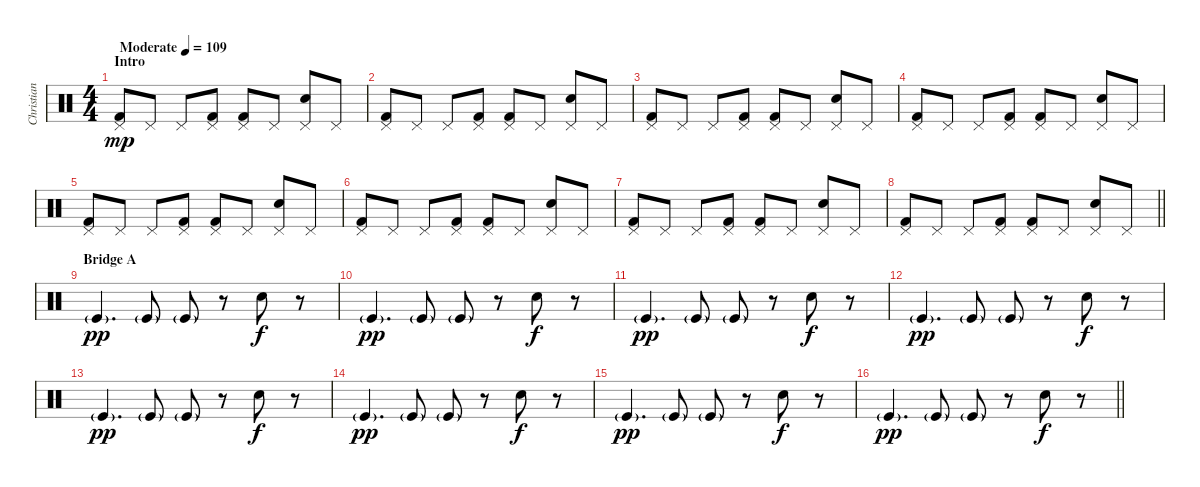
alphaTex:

\track ("Christian Eigner - Drums" "Christian ") {instrument percussion}
\staff {score}
\articulation defaults
\ts (4 4)
\section ("" "Intro")
\tempo (109 "Moderate")
\clef neutral
\ks c
("Pedal Hi-Hat (hit)" "Kick (hit) 2").8{dy mp} "Pedal Hi-Hat (hit)".8 "Pedal Hi-Hat (hit)".8 ("Pedal Hi-Hat (hit)" "Kick (hit) 2").8 ("Pedal Hi-Hat (hit)" "Kick (hit) 2").8 "Pedal Hi-Hat (hit)".8 ("Pedal Hi-Hat (hit)" "Hand Clap (hit)").8 "Pedal Hi-Hat (hit)".8 |
("Pedal Hi-Hat (hit)" "Kick (hit) 2").8 "Pedal Hi-Hat (hit)".8 "Pedal Hi-Hat (hit)".8 ("Pedal Hi-Hat (hit)" "Kick (hit) 2").8 ("Pedal Hi-Hat (hit)" "Kick (hit) 2").8 "Pedal Hi-Hat (hit)".8 ("Pedal Hi-Hat (hit)" "Hand Clap (hit)").8 "Pedal Hi-Hat (hit)".8 |
("Pedal Hi-Hat (hit)" "Kick (hit) 2").8 "Pedal Hi-Hat (hit)".8 "Pedal Hi-Hat (hit)".8 ("Pedal Hi-Hat (hit)" "Kick (hit) 2").8 ("Pedal Hi-Hat (hit)" "Kick (hit) 2").8 "Pedal Hi-Hat (hit)".8 ("Pedal Hi-Hat (hit)" "Hand Clap (hit)").8 "Pedal Hi-Hat (hit)".8 |
("Pedal Hi-Hat (hit)" "Kick (hit) 2").8 "Pedal Hi-Hat (hit)".8 "Pedal Hi-Hat (hit)".8 ("Pedal Hi-Hat (hit)" "Kick (hit) 2").8 ("Pedal Hi-Hat (hit)" "Kick (hit) 2").8 "Pedal Hi-Hat (hit)".8 ("Pedal Hi-Hat (hit)" "Hand Clap (hit)").8 "Pedal Hi-Hat (hit)".8 |
("Pedal Hi-Hat (hit)" "Kick (hit) 2").8 "Pedal Hi-Hat (hit)".8 "Pedal Hi-Hat (hit)".8 ("Pedal Hi-Hat (hit)" "Kick (hit) 2").8 ("Pedal Hi-Hat (hit)" "Kick (hit) 2").8 "Pedal Hi-Hat (hit)".8 ("Pedal Hi-Hat (hit)" "Hand Clap (hit)").8 "Pedal Hi-Hat (hit)".8 |
("Pedal Hi-Hat (hit)" "Kick (hit) 2").8 "Pedal Hi-Hat (hit)".8 "Pedal Hi-Hat (hit)".8 ("Pedal Hi-Hat (hit)" "Kick (hit) 2").8 ("Pedal Hi-Hat (hit)" "Kick (hit) 2").8 "Pedal Hi-Hat (hit)".8 ("Pedal Hi-Hat (hit)" "Hand Clap (hit)").8 "Pedal Hi-Hat (hit)".8 |
("Pedal Hi-Hat (hit)" "Kick (hit) 2").8 "Pedal Hi-Hat (hit)".8 "Pedal Hi-Hat (hit)".8 ("Pedal Hi-Hat (hit)" "Kick (hit) 2").8 ("Pedal Hi-Hat (hit)" "Kick (hit) 2").8 "Pedal Hi-Hat (hit)".8 ("Pedal Hi-Hat (hit)" "Hand Clap (hit)").8 "Pedal Hi-Hat (hit)".8 |
\barLineRight lightlight
("Pedal Hi-Hat (hit)" "Kick (hit) 2").8 "Pedal Hi-Hat (hit)".8 "Pedal Hi-Hat (hit)".8 ("Pedal Hi-Hat (hit)" "Kick (hit) 2").8 ("Pedal Hi-Hat (hit)" "Kick (hit) 2").8 "Pedal Hi-Hat (hit)".8 ("Pedal Hi-Hat (hit)" "Hand Clap (hit)").8 "Pedal Hi-Hat (hit)".8 |
\section ("" "Bridge A")
"Kick (hit)"{g}.4{d dy pp} "Kick (hit)"{g}.8 "Kick (hit)"{g}.8 r.8 "Hand Clap (hit)".8{dy f} r.8 |
"Kick (hit)"{g}.4{d dy pp} "Kick (hit)"{g}.8 "Kick (hit)"{g}.8 r.8 "Hand Clap (hit)".8{dy f} r.8 |
"Kick (hit)"{g}.4{d dy pp} "Kick (hit)"{g}.8 "Kick (hit)"{g}.8 r.8 "Hand Clap (hit)".8{dy f} r.8 |
"Kick (hit)"{g}.4{d dy pp} "Kick (hit)"{g}.8 "Kick (hit)"{g}.8 r.8 "Hand Clap (hit)".8{dy f} r.8 |
"Kick (hit)"{g}.4{d dy pp} "Kick (hit)"{g}.8 "Kick (hit)"{g}.8 r.8 "Hand Clap (hit)".8{dy f} r.8 |
"Kick (hit)"{g}.4{d dy pp} "Kick (hit)"{g}.8 "Kick (hit)"{g}.8 r.8 "Hand Clap (hit)".8{dy f} r.8 |
"Kick (hit)"{g}.4{d dy pp} "Kick (hit)"{g}.8 "Kick (hit)"{g}.8 r.8 "Hand Clap (hit)".8{dy f} r.8 |
\barLineRight lightlight "Kick (hit)"{g}.4{d dy pp} "Kick (hit)"{g}.8 "Kick (hit)"{g}.8
r.8 "Hand Clap (hit)".8{dy f} r.8
